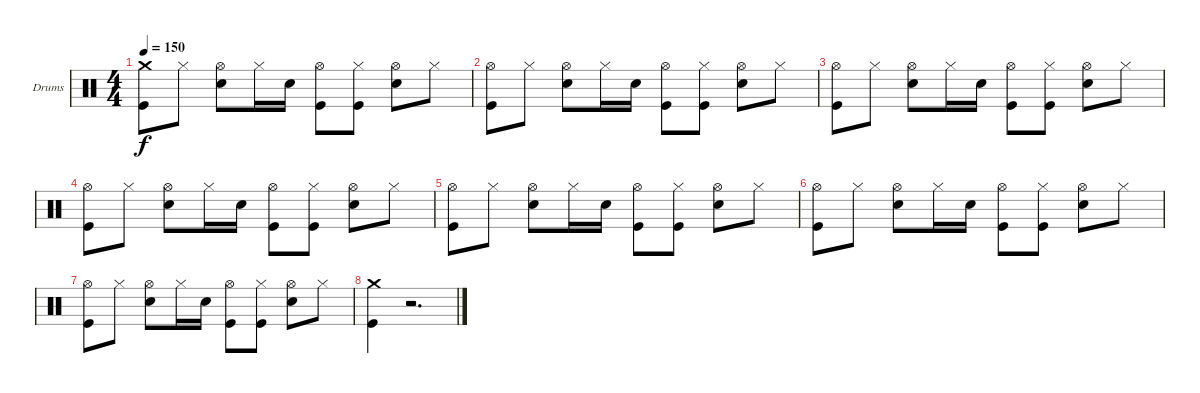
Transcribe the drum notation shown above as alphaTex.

\bracketExtendMode groupsimilarinstruments
\firstSystemTrackNameOrientation horizontal
\otherSystemsTrackNameOrientation horizontal
\track ("Drumkit" "Drums") {instrument percussion}
\staff {score}
\articulation defaults
\ts (4 4)
\tempo 150
\clef neutral
\ks c
("Crash medium (hit)" "Kick (hit)").8{dy f} "Hi-Hat (closed)".8 ("Hi-Hat (open)" "Snare (hit) 2").8 "Hi-Hat (closed)".16 "Snare (hit) 2".16 ("Hi-Hat (open)" "Kick (hit)").8 ("Hi-Hat (closed)" "Kick (hit)").8 ("Hi-Hat (open)" "Snare (hit) 2").8 "Hi-Hat (closed)".8 |
("Hi-Hat (open)" "Kick (hit)").8 "Hi-Hat (closed)".8 ("Hi-Hat (open)" "Snare (hit) 2").8 "Hi-Hat (closed)".16 "Snare (hit) 2".16 ("Hi-Hat (open)" "Kick (hit)").8 ("Hi-Hat (closed)" "Kick (hit)").8 ("Hi-Hat (open)" "Snare (hit) 2").8 "Hi-Hat (closed)".8 |
("Hi-Hat (open)" "Kick (hit)").8 "Hi-Hat (closed)".8 ("Hi-Hat (open)" "Snare (hit) 2").8 "Hi-Hat (closed)".16 "Snare (hit) 2".16 ("Hi-Hat (open)" "Kick (hit)").8 ("Hi-Hat (closed)" "Kick (hit)").8 ("Hi-Hat (open)" "Snare (hit) 2").8 "Hi-Hat (closed)".8 |
("Hi-Hat (open)" "Kick (hit)").8 "Hi-Hat (closed)".8 ("Hi-Hat (open)" "Snare (hit) 2").8 "Hi-Hat (closed)".16 "Snare (hit) 2".16 ("Hi-Hat (open)" "Kick (hit)").8 ("Hi-Hat (closed)" "Kick (hit)").8 ("Hi-Hat (open)" "Snare (hit) 2").8 "Hi-Hat (closed)".8 |
("Hi-Hat (open)" "Kick (hit)").8 "Hi-Hat (closed)".8 ("Hi-Hat (open)" "Snare (hit) 2").8 "Hi-Hat (closed)".16 "Snare (hit) 2".16 ("Hi-Hat (open)" "Kick (hit)").8 ("Hi-Hat (closed)" "Kick (hit)").8 ("Hi-Hat (open)" "Snare (hit) 2").8 "Hi-Hat (closed)".8 |
("Hi-Hat (open)" "Kick (hit)").8 "Hi-Hat (closed)".8 ("Hi-Hat (open)" "Snare (hit) 2").8 "Hi-Hat (closed)".16 "Snare (hit) 2".16 ("Hi-Hat (open)" "Kick (hit)").8 ("Hi-Hat (closed)" "Kick (hit)").8 ("Hi-Hat (open)" "Snare (hit) 2").8 "Hi-Hat (closed)".8 |
("Hi-Hat (open)" "Kick (hit)").8 "Hi-Hat (closed)".8 ("Hi-Hat (open)" "Snare (hit) 2").8 "Hi-Hat (closed)".16 "Snare (hit) 2".16 ("Hi-Hat (open)" "Kick (hit)").8 ("Hi-Hat (closed)" "Kick (hit)").8 ("Hi-Hat (open)" "Snare (hit) 2").8 "Hi-Hat (closed)".8 |
("Crash medium (hit)" "Kick (hit)").4 r.2{d}
